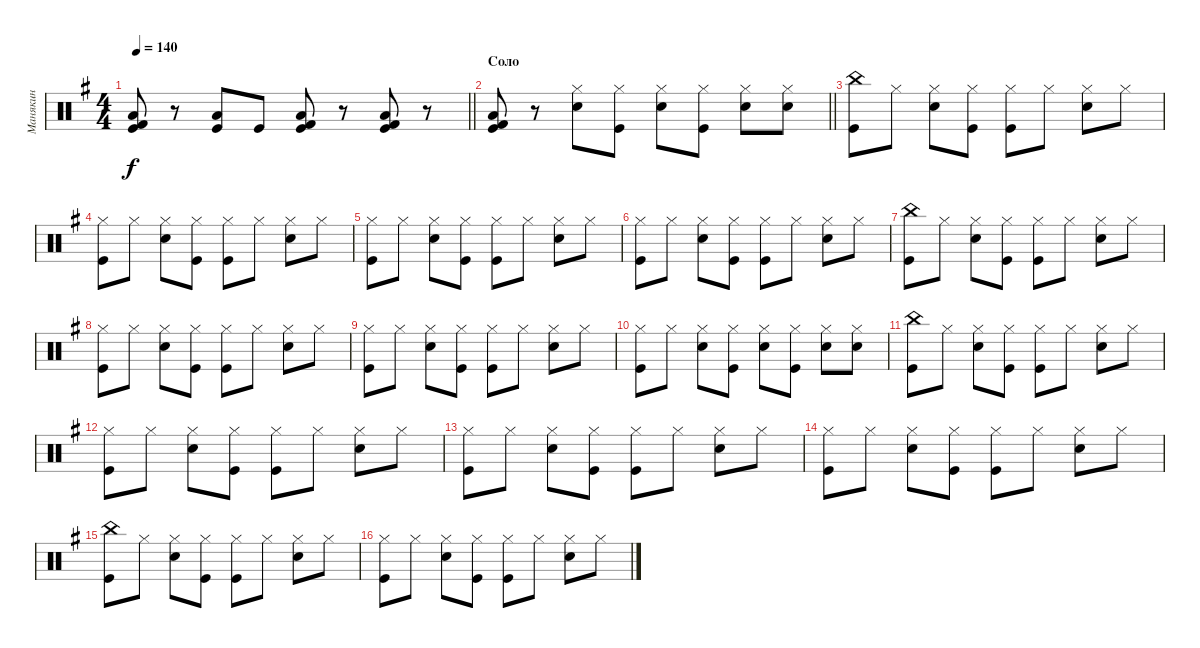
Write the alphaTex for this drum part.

\track ("Манякин" "Манякин") {instrument percussion}
\staff {score}
\articulation defaults
\ts (4 4)
\tempo 140
\clef neutral
\barLineRight lightlight
\ks g
("Kick (hit) 2" "Low Floor Tom (hit)" "Kick (hit)").8{dy f} r.8 ("Low Tom (hit)" "Kick (hit)").8 "Kick (hit)".8 ("Kick (hit) 2" "Low Floor Tom (hit)" "Kick (hit)").8 r.8 ("Kick (hit) 2" "Low Tom (hit)" "Kick (hit)").8 r.8 |
\section ("" "Соло")
\barLineRight lightlight
("Kick (hit) 2" "Low Floor Tom (hit)" "Kick (hit)").8 r.8 ("Hi-Hat (closed)" "Snare (hit) 2").8 ("Hi-Hat (closed)" "Kick (hit)").8 ("Hi-Hat (closed)" "Snare (hit) 2").8 ("Hi-Hat (closed)" "Kick (hit)").8 ("Hi-Hat (closed)" "Snare (hit) 2").8 ("Hi-Hat (closed)" "Snare (hit) 2").8 |
("China (hit)" "Kick (hit)").8 "Hi-Hat (closed)".8 ("Hi-Hat (closed)" "Snare (hit) 2").8 ("Hi-Hat (closed)" "Kick (hit)").8 ("Hi-Hat (closed)" "Kick (hit)").8 "Hi-Hat (closed)".8 ("Hi-Hat (closed)" "Snare (hit) 2").8 "Hi-Hat (closed)".8 |
("Hi-Hat (closed)" "Kick (hit)").8 "Hi-Hat (closed)".8 ("Hi-Hat (closed)" "Snare (hit) 2").8 ("Hi-Hat (closed)" "Kick (hit)").8 ("Hi-Hat (closed)" "Kick (hit)").8 "Hi-Hat (closed)".8 ("Hi-Hat (closed)" "Snare (hit) 2").8 "Hi-Hat (closed)".8 |
("Hi-Hat (closed)" "Kick (hit)").8 "Hi-Hat (closed)".8 ("Hi-Hat (closed)" "Snare (hit) 2").8 ("Hi-Hat (closed)" "Kick (hit)").8 ("Hi-Hat (closed)" "Kick (hit)").8 "Hi-Hat (closed)".8 ("Hi-Hat (closed)" "Snare (hit) 2").8 "Hi-Hat (closed)".8 |
("Hi-Hat (closed)" "Kick (hit)").8 "Hi-Hat (closed)".8 ("Hi-Hat (closed)" "Snare (hit) 2").8 ("Hi-Hat (closed)" "Kick (hit)").8 ("Hi-Hat (closed)" "Kick (hit)").8 "Hi-Hat (closed)".8 ("Hi-Hat (closed)" "Snare (hit) 2").8 "Hi-Hat (closed)".8 |
("China (hit)" "Kick (hit)").8 "Hi-Hat (closed)".8 ("Hi-Hat (closed)" "Snare (hit) 2").8 ("Hi-Hat (closed)" "Kick (hit)").8 ("Hi-Hat (closed)" "Kick (hit)").8 "Hi-Hat (closed)".8 ("Hi-Hat (closed)" "Snare (hit) 2").8 "Hi-Hat (closed)".8 |
("Hi-Hat (closed)" "Kick (hit)").8 "Hi-Hat (closed)".8 ("Hi-Hat (closed)" "Snare (hit) 2").8 ("Hi-Hat (closed)" "Kick (hit)").8 ("Hi-Hat (closed)" "Kick (hit)").8 "Hi-Hat (closed)".8 ("Hi-Hat (closed)" "Snare (hit) 2").8 "Hi-Hat (closed)".8 |
("Hi-Hat (closed)" "Kick (hit)").8 "Hi-Hat (closed)".8 ("Hi-Hat (closed)" "Snare (hit) 2").8 ("Hi-Hat (closed)" "Kick (hit)").8 ("Hi-Hat (closed)" "Kick (hit)").8 "Hi-Hat (closed)".8 ("Hi-Hat (closed)" "Snare (hit) 2").8 "Hi-Hat (closed)".8 |
("Hi-Hat (closed)" "Kick (hit)").8 "Hi-Hat (closed)".8 ("Hi-Hat (closed)" "Snare (hit) 2").8 ("Hi-Hat (closed)" "Kick (hit)").8 ("Hi-Hat (closed)" "Snare (hit) 2").8 ("Hi-Hat (closed)" "Kick (hit)").8 ("Hi-Hat (closed)" "Snare (hit) 2").8 ("Hi-Hat (closed)" "Snare (hit) 2").8 |
("China (hit)" "Kick (hit)").8 "Hi-Hat (closed)".8 ("Hi-Hat (closed)" "Snare (hit) 2").8 ("Hi-Hat (closed)" "Kick (hit)").8 ("Hi-Hat (closed)" "Kick (hit)").8 "Hi-Hat (closed)".8 ("Hi-Hat (closed)" "Snare (hit) 2").8 "Hi-Hat (closed)".8 |
("Hi-Hat (closed)" "Kick (hit)").8 "Hi-Hat (closed)".8 ("Hi-Hat (closed)" "Snare (hit) 2").8 ("Hi-Hat (closed)" "Kick (hit)").8 ("Hi-Hat (closed)" "Kick (hit)").8 "Hi-Hat (closed)".8 ("Hi-Hat (closed)" "Snare (hit) 2").8 "Hi-Hat (closed)".8 |
("Hi-Hat (closed)" "Kick (hit)").8 "Hi-Hat (closed)".8 ("Hi-Hat (closed)" "Snare (hit) 2").8 ("Hi-Hat (closed)" "Kick (hit)").8 ("Hi-Hat (closed)" "Kick (hit)").8 "Hi-Hat (closed)".8 ("Hi-Hat (closed)" "Snare (hit) 2").8 "Hi-Hat (closed)".8 |
("Hi-Hat (closed)" "Kick (hit)").8 "Hi-Hat (closed)".8 ("Hi-Hat (closed)" "Snare (hit) 2").8 ("Hi-Hat (closed)" "Kick (hit)").8 ("Hi-Hat (closed)" "Kick (hit)").8 "Hi-Hat (closed)".8 ("Hi-Hat (closed)" "Snare (hit) 2").8 "Hi-Hat (closed)".8 |
("China (hit)" "Kick (hit)").8 "Hi-Hat (closed)".8 ("Hi-Hat (closed)" "Snare (hit) 2").8 ("Hi-Hat (closed)" "Kick (hit)").8 ("Hi-Hat (closed)" "Kick (hit)").8 "Hi-Hat (closed)".8 ("Hi-Hat (closed)" "Snare (hit) 2").8 "Hi-Hat (closed)".8 |
("Hi-Hat (closed)" "Kick (hit)").8 "Hi-Hat (closed)".8 ("Hi-Hat (closed)" "Snare (hit) 2").8 ("Hi-Hat (closed)" "Kick (hit)").8 ("Hi-Hat (closed)" "Kick (hit)").8 "Hi-Hat (closed)".8 ("Hi-Hat (closed)" "Snare (hit) 2").8 "Hi-Hat (closed)".8
